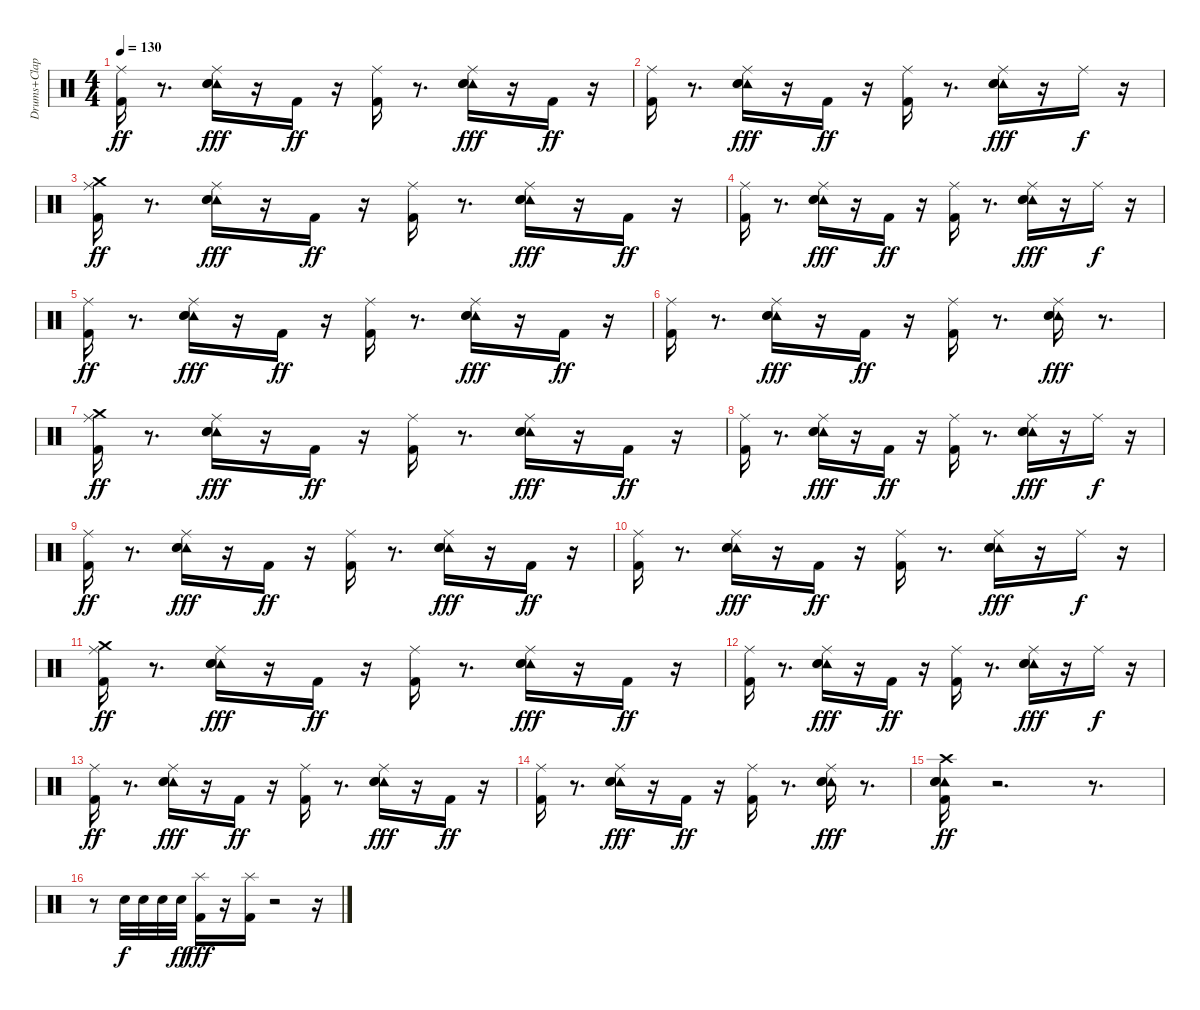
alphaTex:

\track ("Drums+Clap" "Drums+Clap") {instrument percussion}
\staff {score}
\articulation defaults
\ts (4 4)
\tempo 130
\clef neutral
\ks c
("Ride (middle)" "Kick (hit) 2").16{dy ff} r.8{d} ("Tambourine (hit)" "Ride (middle)" "Electric Snare (hit)" "Hand Clap (hit)").16{dy fff} r.16 "Kick (hit) 2".16{dy ff} r.16 ("Ride (middle)" "Kick (hit) 2").16 r.8{d} ("Tambourine (hit)" "Ride (middle)" "Electric Snare (hit)" "Hand Clap (hit)").16{dy fff} r.16 "Kick (hit) 2".16{dy ff} r.16 |
("Ride (middle)" "Kick (hit) 2").16 r.8{d} ("Tambourine (hit)" "Ride (middle)" "Electric Snare (hit)" "Hand Clap (hit)").16{dy fff} r.16 "Kick (hit) 2".16{dy ff} r.16 ("Ride (middle)" "Kick (hit) 2").16 r.8{d} ("Tambourine (hit)" "Ride (middle)" "Electric Snare (hit)" "Hand Clap (hit)").16{dy fff} r.16 "Ride (middle)".16{dy f} r.16 |
("Crash medium (hit)" "Ride (middle)" "Kick (hit) 2").16{dy ff} r.8{d} ("Tambourine (hit)" "Ride (middle)" "Electric Snare (hit)" "Hand Clap (hit)").16{dy fff} r.16 "Kick (hit) 2".16{dy ff} r.16 ("Ride (middle)" "Kick (hit) 2").16 r.8{d} ("Tambourine (hit)" "Ride (middle)" "Electric Snare (hit)" "Hand Clap (hit)").16{dy fff} r.16 "Kick (hit) 2".16{dy ff} r.16 |
("Ride (middle)" "Kick (hit) 2").16 r.8{d} ("Tambourine (hit)" "Ride (middle)" "Electric Snare (hit)" "Hand Clap (hit)").16{dy fff} r.16 "Kick (hit) 2".16{dy ff} r.16 ("Ride (middle)" "Kick (hit) 2").16 r.8{d} ("Tambourine (hit)" "Ride (middle)" "Electric Snare (hit)" "Hand Clap (hit)").16{dy fff} r.16 "Ride (middle)".16{dy f} r.16 |
("Ride (middle)" "Kick (hit) 2").16{dy ff} r.8{d} ("Tambourine (hit)" "Ride (middle)" "Electric Snare (hit)" "Hand Clap (hit)").16{dy fff} r.16 "Kick (hit) 2".16{dy ff} r.16 ("Ride (middle)" "Kick (hit) 2").16 r.8{d} ("Tambourine (hit)" "Ride (middle)" "Electric Snare (hit)" "Hand Clap (hit)").16{dy fff} r.16 "Kick (hit) 2".16{dy ff} r.16 |
("Ride (middle)" "Kick (hit) 2").16 r.8{d} ("Tambourine (hit)" "Ride (middle)" "Electric Snare (hit)" "Hand Clap (hit)").16{dy fff} r.16 "Kick (hit) 2".16{dy ff} r.16 ("Ride (middle)" "Kick (hit) 2").16 r.8{d} ("Tambourine (hit)" "Ride (middle)" "Electric Snare (hit)" "Hand Clap (hit)").16{dy fff} r.8{d} |
("Crash medium (hit)" "Ride (middle)" "Kick (hit) 2").16{dy ff} r.8{d} ("Tambourine (hit)" "Ride (middle)" "Electric Snare (hit)" "Hand Clap (hit)").16{dy fff} r.16 "Kick (hit) 2".16{dy ff} r.16 ("Ride (middle)" "Kick (hit) 2").16 r.8{d} ("Tambourine (hit)" "Ride (middle)" "Electric Snare (hit)" "Hand Clap (hit)").16{dy fff} r.16 "Kick (hit) 2".16{dy ff} r.16 |
("Ride (middle)" "Kick (hit) 2").16 r.8{d} ("Tambourine (hit)" "Ride (middle)" "Electric Snare (hit)" "Hand Clap (hit)").16{dy fff} r.16 "Kick (hit) 2".16{dy ff} r.16 ("Ride (middle)" "Kick (hit) 2").16 r.8{d} ("Tambourine (hit)" "Ride (middle)" "Electric Snare (hit)" "Hand Clap (hit)").16{dy fff} r.16 "Ride (middle)".16{dy f} r.16 |
("Ride (middle)" "Kick (hit) 2").16{dy ff} r.8{d} ("Tambourine (hit)" "Ride (middle)" "Electric Snare (hit)" "Hand Clap (hit)").16{dy fff} r.16 "Kick (hit) 2".16{dy ff} r.16 ("Ride (middle)" "Kick (hit) 2").16 r.8{d} ("Tambourine (hit)" "Ride (middle)" "Electric Snare (hit)" "Hand Clap (hit)").16{dy fff} r.16 "Kick (hit) 2".16{dy ff} r.16 |
("Ride (middle)" "Kick (hit) 2").16 r.8{d} ("Tambourine (hit)" "Ride (middle)" "Electric Snare (hit)" "Hand Clap (hit)").16{dy fff} r.16 "Kick (hit) 2".16{dy ff} r.16 ("Ride (middle)" "Kick (hit) 2").16 r.8{d} ("Tambourine (hit)" "Ride (middle)" "Electric Snare (hit)" "Hand Clap (hit)").16{dy fff} r.16 "Ride (middle)".16{dy f} r.16 |
("Crash medium (hit)" "Ride (middle)" "Kick (hit) 2").16{dy ff} r.8{d} ("Tambourine (hit)" "Ride (middle)" "Electric Snare (hit)" "Hand Clap (hit)").16{dy fff} r.16 "Kick (hit) 2".16{dy ff} r.16 ("Ride (middle)" "Kick (hit) 2").16 r.8{d} ("Tambourine (hit)" "Ride (middle)" "Electric Snare (hit)" "Hand Clap (hit)").16{dy fff} r.16 "Kick (hit) 2".16{dy ff} r.16 |
("Ride (middle)" "Kick (hit) 2").16 r.8{d} ("Tambourine (hit)" "Ride (middle)" "Electric Snare (hit)" "Hand Clap (hit)").16{dy fff} r.16 "Kick (hit) 2".16{dy ff} r.16 ("Ride (middle)" "Kick (hit) 2").16 r.8{d} ("Tambourine (hit)" "Ride (middle)" "Electric Snare (hit)" "Hand Clap (hit)").16{dy fff} r.16 "Ride (middle)".16{dy f} r.16 |
("Ride (middle)" "Kick (hit) 2").16{dy ff} r.8{d} ("Tambourine (hit)" "Ride (middle)" "Electric Snare (hit)" "Hand Clap (hit)").16{dy fff} r.16 "Kick (hit) 2".16{dy ff} r.16 ("Ride (middle)" "Kick (hit) 2").16 r.8{d} ("Tambourine (hit)" "Ride (middle)" "Electric Snare (hit)" "Hand Clap (hit)").16{dy fff} r.16 "Kick (hit) 2".16{dy ff} r.16 |
("Ride (middle)" "Kick (hit) 2").16 r.8{d} ("Tambourine (hit)" "Ride (middle)" "Electric Snare (hit)" "Hand Clap (hit)").16{dy fff} r.16 "Kick (hit) 2".16{dy ff} r.16 ("Ride (middle)" "Kick (hit) 2").16 r.8{d} ("Tambourine (hit)" "Ride (middle)" "Electric Snare (hit)" "Hand Clap (hit)").16{dy fff} r.8{d} |
("Crash high (hit)" "Tambourine (hit)" "Electric Snare (hit)" "Kick (hit) 2" "Hand Clap (hit)").16{dy ff} r.2{d} r.8{d} |
r.8 "Electric Snare (hit)".32{dy f} "Electric Snare (hit)".32 "Electric Snare (hit)".32 "Electric Snare (hit)".32{dy ff} ("Splash (hit)" "Kick (hit) 2").16{dy fff} r.16 ("Splash (hit)" "Kick (hit) 2").16 r.2 r.16
